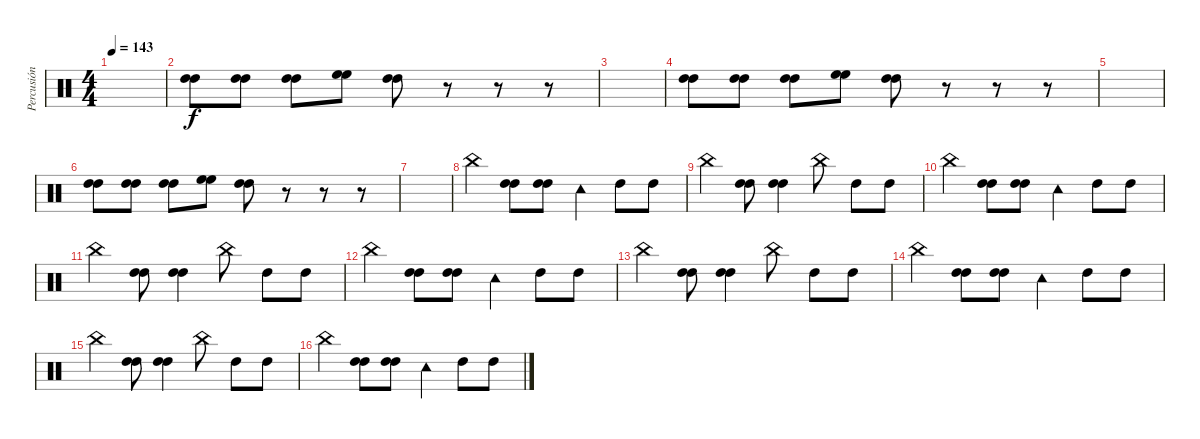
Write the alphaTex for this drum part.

\track ("Percusión" "Percusión") {instrument percussion}
\staff {score}
\articulation defaults
\ts (4 4)
\tempo 143
\clef neutral
\ks c
|
("High Tom (hit)" "High Tom (hit)").8 ("High Tom (hit)" "High Tom (hit)").8 ("High Tom (hit)" "High Tom (hit)").8 ("High Floor Tom (hit)" "High Floor Tom (hit)").8 ("High Tom (hit)" "High Tom (hit)").8 r.8 r.8 r.8 |
|
("High Tom (hit)" "High Tom (hit)").8 ("High Tom (hit)" "High Tom (hit)").8 ("High Tom (hit)" "High Tom (hit)").8 ("High Floor Tom (hit)" "High Floor Tom (hit)").8 ("High Tom (hit)" "High Tom (hit)").8 r.8 r.8 r.8 |
|
("High Tom (hit)" "High Tom (hit)").8 ("High Tom (hit)" "High Tom (hit)").8 ("High Tom (hit)" "High Tom (hit)").8 ("High Floor Tom (hit)" "High Floor Tom (hit)").8 ("High Tom (hit)" "High Tom (hit)").8 r.8 r.8 r.8 |
|
"China (hit)".4 ("High Tom (hit)" "High Tom (hit)").8 ("High Tom (hit)" "High Tom (hit)").8 "Tambourine (hit)".4 "High Tom (hit)".8 "High Tom (hit)".8 |
"China (hit)".4 ("High Tom (hit)" "High Tom (hit)").8 ("High Tom (hit)" "High Tom (hit)").4 "China (hit)".8 "High Tom (hit)".8 "High Tom (hit)".8 |
"China (hit)".4 ("High Tom (hit)" "High Tom (hit)").8 ("High Tom (hit)" "High Tom (hit)").8 "Tambourine (hit)".4 "High Tom (hit)".8 "High Tom (hit)".8 |
"China (hit)".4 ("High Tom (hit)" "High Tom (hit)").8 ("High Tom (hit)" "High Tom (hit)").4 "China (hit)".8 "High Tom (hit)".8 "High Tom (hit)".8 |
"China (hit)".4 ("High Tom (hit)" "High Tom (hit)").8 ("High Tom (hit)" "High Tom (hit)").8 "Tambourine (hit)".4 "High Tom (hit)".8 "High Tom (hit)".8 |
"China (hit)".4 ("High Tom (hit)" "High Tom (hit)").8 ("High Tom (hit)" "High Tom (hit)").4 "China (hit)".8 "High Tom (hit)".8 "High Tom (hit)".8 |
"China (hit)".4 ("High Tom (hit)" "High Tom (hit)").8 ("High Tom (hit)" "High Tom (hit)").8 "Tambourine (hit)".4 "High Tom (hit)".8 "High Tom (hit)".8 |
"China (hit)".4 ("High Tom (hit)" "High Tom (hit)").8 ("High Tom (hit)" "High Tom (hit)").4 "China (hit)".8 "High Tom (hit)".8 "High Tom (hit)".8 |
"China (hit)".4 ("High Tom (hit)" "High Tom (hit)").8 ("High Tom (hit)" "High Tom (hit)").8 "Tambourine (hit)".4 "High Tom (hit)".8 "High Tom (hit)".8
